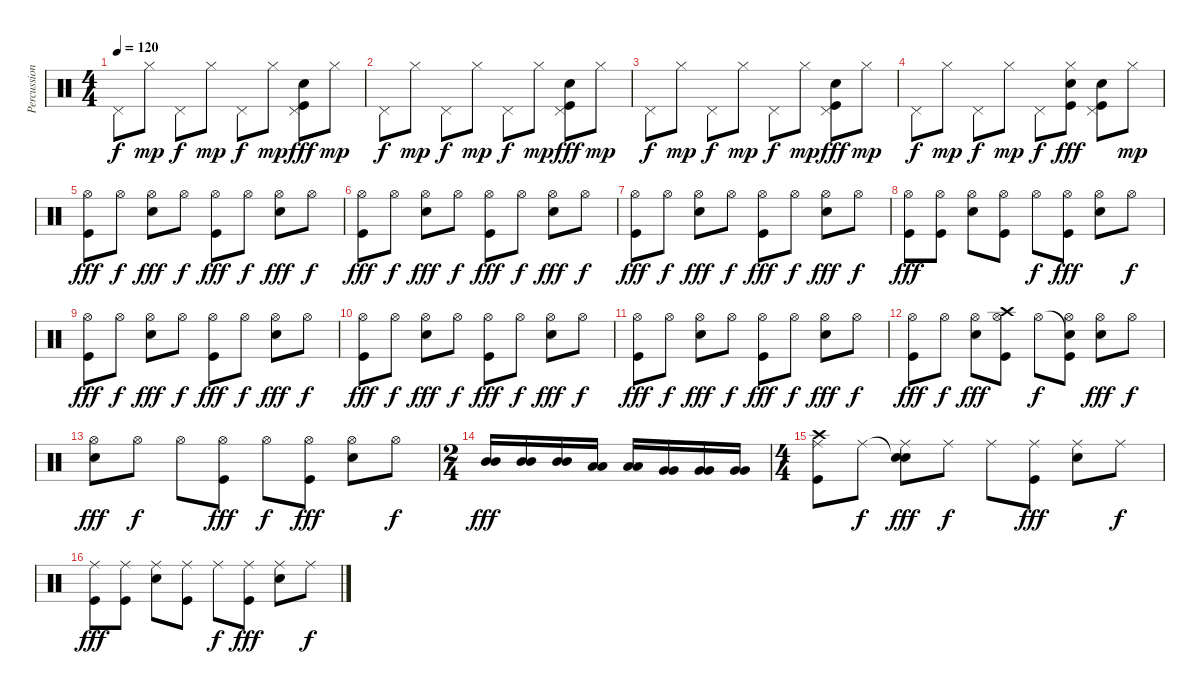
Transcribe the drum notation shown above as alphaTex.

\track ("Percussion" "Percussion") {solo instrument percussion}
\staff {score}
\articulation defaults
\ts (4 4)
\tempo 120
\clef neutral
\ks c "Pedal Hi-Hat (hit)".8{dy f} "Hi-Hat (closed)".8{dy mp} "Pedal Hi-Hat (hit)".8{dy f} "Hi-Hat (closed)".8{dy mp} "Pedal Hi-Hat (hit)".8{dy f} "Hi-Hat (closed)".8{dy mp}
("Pedal Hi-Hat (hit)" "Snare (hit) 2" "Kick (hit)").8{dy fff} "Hi-Hat (closed)".8{dy mp} |
"Pedal Hi-Hat (hit)".8{dy f} "Hi-Hat (closed)".8{dy mp} "Pedal Hi-Hat (hit)".8{dy f} "Hi-Hat (closed)".8{dy mp} "Pedal Hi-Hat (hit)".8{dy f} "Hi-Hat (closed)".8{dy mp} ("Pedal Hi-Hat (hit)" "Snare (hit) 2" "Kick (hit)").8{dy fff} "Hi-Hat (closed)".8{dy mp} |
"Pedal Hi-Hat (hit)".8{dy f} "Hi-Hat (closed)".8{dy mp} "Pedal Hi-Hat (hit)".8{dy f} "Hi-Hat (closed)".8{dy mp} "Pedal Hi-Hat (hit)".8{dy f} "Hi-Hat (closed)".8{dy mp} ("Pedal Hi-Hat (hit)" "Snare (hit) 2" "Kick (hit)").8{dy fff} "Hi-Hat (closed)".8{dy mp} |
"Pedal Hi-Hat (hit)".8{dy f} "Hi-Hat (closed)".8{dy mp} "Pedal Hi-Hat (hit)".8{dy f} "Hi-Hat (closed)".8{dy mp} "Pedal Hi-Hat (hit)".8{dy f} ("Hi-Hat (closed)" "Snare (hit) 2" "Kick (hit)").8{dy fff} ("Pedal Hi-Hat (hit)" "Snare (hit) 2" "Kick (hit)").8 "Hi-Hat (closed)".8{dy mp} |
("Hi-Hat (open)" "Kick (hit)").8{dy fff} "Hi-Hat (open)".8{dy f} ("Hi-Hat (open)" "Snare (hit) 2").8{dy fff} "Hi-Hat (open)".8{dy f} ("Hi-Hat (open)" "Kick (hit)").8{dy fff} "Hi-Hat (open)".8{dy f} ("Hi-Hat (open)" "Snare (hit) 2").8{dy fff} "Hi-Hat (open)".8{dy f} |
("Hi-Hat (open)" "Kick (hit)").8{dy fff} "Hi-Hat (open)".8{dy f} ("Hi-Hat (open)" "Snare (hit) 2").8{dy fff} "Hi-Hat (open)".8{dy f} ("Hi-Hat (open)" "Kick (hit)").8{dy fff} "Hi-Hat (open)".8{dy f} ("Hi-Hat (open)" "Snare (hit) 2").8{dy fff} "Hi-Hat (open)".8{dy f} |
("Hi-Hat (open)" "Kick (hit)").8{dy fff} "Hi-Hat (open)".8{dy f} ("Hi-Hat (open)" "Snare (hit) 2").8{dy fff} "Hi-Hat (open)".8{dy f} ("Hi-Hat (open)" "Kick (hit)").8{dy fff} "Hi-Hat (open)".8{dy f} ("Hi-Hat (open)" "Snare (hit) 2").8{dy fff} "Hi-Hat (open)".8{dy f} |
("Hi-Hat (open)" "Kick (hit)").8{dy fff} ("Hi-Hat (open)" "Kick (hit)").8 ("Hi-Hat (open)" "Snare (hit) 2").8 ("Hi-Hat (open)" "Kick (hit)").8 "Hi-Hat (open)".8{dy f} ("Hi-Hat (open)" "Kick (hit)").8{dy fff} ("Hi-Hat (open)" "Snare (hit) 2").8 "Hi-Hat (open)".8{dy f} |
("Hi-Hat (open)" "Kick (hit)").8{dy fff} "Hi-Hat (open)".8{dy f} ("Hi-Hat (open)" "Snare (hit) 2").8{dy fff} "Hi-Hat (open)".8{dy f} ("Hi-Hat (open)" "Kick (hit)").8{dy fff} "Hi-Hat (open)".8{dy f} ("Hi-Hat (open)" "Snare (hit) 2").8{dy fff} "Hi-Hat (open)".8{dy f} |
("Hi-Hat (open)" "Kick (hit)").8{dy fff} "Hi-Hat (open)".8{dy f} ("Hi-Hat (open)" "Snare (hit) 2").8{dy fff} "Hi-Hat (open)".8{dy f} ("Hi-Hat (open)" "Kick (hit)").8{dy fff} "Hi-Hat (open)".8{dy f} ("Hi-Hat (open)" "Snare (hit) 2").8{dy fff} "Hi-Hat (open)".8{dy f} |
("Hi-Hat (open)" "Kick (hit)").8{dy fff} "Hi-Hat (open)".8{dy f} ("Hi-Hat (open)" "Snare (hit) 2").8{dy fff} "Hi-Hat (open)".8{dy f} ("Hi-Hat (open)" "Kick (hit)").8{dy fff} "Hi-Hat (open)".8{dy f} ("Hi-Hat (open)" "Snare (hit) 2").8{dy fff} "Hi-Hat (open)".8{dy f} |
("Hi-Hat (open)" "Kick (hit)").8{dy fff} "Hi-Hat (open)".8{dy f} ("Hi-Hat (open)" "Snare (hit) 2").8{dy fff} ("Crash high (hit)" "Hi-Hat (open)" "Kick (hit)").8 "Hi-Hat (open)".8{dy f} ("Snare (hit)"{t} "Hi-Hat (open)" "Kick (hit)").8 ("Hi-Hat (open)" "Snare (hit) 2").8{dy fff} "Hi-Hat (open)".8{dy f} |
("Hi-Hat (open)" "Snare (hit) 2").8{dy fff} "Hi-Hat (open)".8{dy f} "Hi-Hat (open)".8 ("Hi-Hat (open)" "Kick (hit)").8{dy fff} "Hi-Hat (open)".8{dy f} ("Hi-Hat (open)" "Kick (hit)").8{dy fff} ("Hi-Hat (open)" "Snare (hit) 2").8 "Hi-Hat (open)".8{dy f} |
\ts (2 4)
("Mid Tom (hit)" "Mid Tom (hit)").16{dy fff} ("Mid Tom (hit)" "Mid Tom (hit)").16 ("Mid Tom (hit)" "Mid Tom (hit)").16 ("Low Tom (hit)" "Low Tom (hit)").16 ("Low Tom (hit)" "Low Tom (hit)").16 ("Very Low Tom (hit)" "Very Low Tom (hit)").16 ("Very Low Tom (hit)" "Very Low Tom (hit)").16 ("Very Low Tom (hit)" "Very Low Tom (hit)").16 |
\ts (4 4)
("Crash high (hit)" "Ride (middle)" "Kick (hit)").8 "Ride (middle)".8{dy f} ("Snare (hit)"{t} "Ride (middle)" "Snare (hit) 2").8{dy fff} "Ride (middle)".8{dy f} "Ride (middle)".8 ("Ride (middle)" "Kick (hit)").8{dy fff} ("Ride (middle)" "Snare (hit) 2").8 "Ride (middle)".8{dy f} |
("Ride (middle)" "Kick (hit)").8{dy fff} ("Ride (middle)" "Kick (hit)").8 ("Ride (middle)" "Snare (hit) 2").8 ("Ride (middle)" "Kick (hit)").8 "Ride (middle)".8{dy f} ("Ride (middle)" "Kick (hit)").8{dy fff} ("Ride (middle)" "Snare (hit) 2").8 "Ride (middle)".8{dy f}
